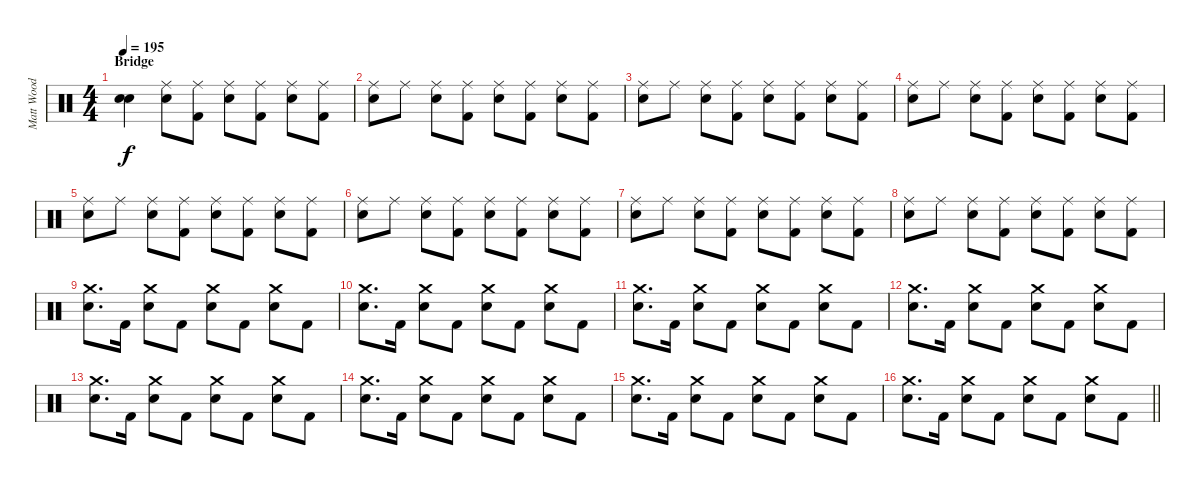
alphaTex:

\track ("Matt Wood" "Matt Wood") {instrument percussion}
\staff {score}
\articulation defaults
\ts (4 4)
\section ("" "Bridge")
\tempo 195
\clef neutral
\ks c
("Snare (hit)"{t} "Snare (hit)"{t}).4{dy f} ("Ride (middle)" "Snare (hit) 2").8 ("Ride (middle)" "Kick (hit) 2").8 ("Ride (middle)" "Snare (hit) 2").8 ("Ride (middle)" "Kick (hit) 2").8 ("Ride (middle)" "Snare (hit) 2").8 ("Ride (middle)" "Kick (hit) 2").8 |
("Ride (middle)" "Snare (hit) 2").8 "Ride (middle)".8 ("Ride (middle)" "Snare (hit) 2").8 ("Ride (middle)" "Kick (hit) 2").8 ("Ride (middle)" "Snare (hit) 2").8 ("Ride (middle)" "Kick (hit) 2").8 ("Ride (middle)" "Snare (hit) 2").8 ("Ride (middle)" "Kick (hit) 2").8 |
("Ride (middle)" "Snare (hit) 2").8 "Ride (middle)".8 ("Ride (middle)" "Snare (hit) 2").8 ("Ride (middle)" "Kick (hit) 2").8 ("Ride (middle)" "Snare (hit) 2").8 ("Ride (middle)" "Kick (hit) 2").8 ("Ride (middle)" "Snare (hit) 2").8 ("Ride (middle)" "Kick (hit) 2").8 |
("Ride (middle)" "Snare (hit) 2").8 "Ride (middle)".8 ("Ride (middle)" "Snare (hit) 2").8 ("Ride (middle)" "Kick (hit) 2").8 ("Ride (middle)" "Snare (hit) 2").8 ("Ride (middle)" "Kick (hit) 2").8 ("Ride (middle)" "Snare (hit) 2").8 ("Ride (middle)" "Kick (hit) 2").8 |
("Ride (middle)" "Snare (hit) 2").8 "Ride (middle)".8 ("Ride (middle)" "Snare (hit) 2").8 ("Ride (middle)" "Kick (hit) 2").8 ("Ride (middle)" "Snare (hit) 2").8 ("Ride (middle)" "Kick (hit) 2").8 ("Ride (middle)" "Snare (hit) 2").8 ("Ride (middle)" "Kick (hit) 2").8 |
("Ride (middle)" "Snare (hit) 2").8 "Ride (middle)".8 ("Ride (middle)" "Snare (hit) 2").8 ("Ride (middle)" "Kick (hit) 2").8 ("Ride (middle)" "Snare (hit) 2").8 ("Ride (middle)" "Kick (hit) 2").8 ("Ride (middle)" "Snare (hit) 2").8 ("Ride (middle)" "Kick (hit) 2").8 |
("Ride (middle)" "Snare (hit) 2").8 "Ride (middle)".8 ("Ride (middle)" "Snare (hit) 2").8 ("Ride (middle)" "Kick (hit) 2").8 ("Ride (middle)" "Snare (hit) 2").8 ("Ride (middle)" "Kick (hit) 2").8 ("Ride (middle)" "Snare (hit) 2").8 ("Ride (middle)" "Kick (hit) 2").8 |
("Ride (middle)" "Snare (hit) 2").8 "Ride (middle)".8 ("Ride (middle)" "Snare (hit) 2").8 ("Ride (middle)" "Kick (hit) 2").8 ("Ride (middle)" "Snare (hit) 2").8 ("Ride (middle)" "Kick (hit) 2").8 ("Ride (middle)" "Snare (hit) 2").8 ("Ride (middle)" "Kick (hit) 2").8 |
("Crash medium (hit)" "Snare (hit) 2").8{d} "Kick (hit) 2".16 ("Crash medium (hit)" "Snare (hit) 2").8 "Kick (hit) 2".8 ("Crash medium (hit)" "Snare (hit) 2").8 "Kick (hit) 2".8 ("Crash medium (hit)" "Snare (hit) 2").8 "Kick (hit) 2".8 |
("Crash medium (hit)" "Snare (hit) 2").8{d} "Kick (hit) 2".16 ("Crash medium (hit)" "Snare (hit) 2").8 "Kick (hit) 2".8 ("Crash medium (hit)" "Snare (hit) 2").8 "Kick (hit) 2".8 ("Crash medium (hit)" "Snare (hit) 2").8 "Kick (hit) 2".8 |
("Crash medium (hit)" "Snare (hit) 2").8{d} "Kick (hit) 2".16 ("Crash medium (hit)" "Snare (hit) 2").8 "Kick (hit) 2".8 ("Crash medium (hit)" "Snare (hit) 2").8 "Kick (hit) 2".8 ("Crash medium (hit)" "Snare (hit) 2").8 "Kick (hit) 2".8 |
("Crash medium (hit)" "Snare (hit) 2").8{d} "Kick (hit) 2".16 ("Crash medium (hit)" "Snare (hit) 2").8 "Kick (hit) 2".8 ("Crash medium (hit)" "Snare (hit) 2").8 "Kick (hit) 2".8 ("Crash medium (hit)" "Snare (hit) 2").8 "Kick (hit) 2".8 |
("Crash medium (hit)" "Snare (hit) 2").8{d} "Kick (hit) 2".16 ("Crash medium (hit)" "Snare (hit) 2").8 "Kick (hit) 2".8 ("Crash medium (hit)" "Snare (hit) 2").8 "Kick (hit) 2".8 ("Crash medium (hit)" "Snare (hit) 2").8 "Kick (hit) 2".8 |
("Crash medium (hit)" "Snare (hit) 2").8{d} "Kick (hit) 2".16 ("Crash medium (hit)" "Snare (hit) 2").8 "Kick (hit) 2".8 ("Crash medium (hit)" "Snare (hit) 2").8 "Kick (hit) 2".8 ("Crash medium (hit)" "Snare (hit) 2").8 "Kick (hit) 2".8 |
("Crash medium (hit)" "Snare (hit) 2").8{d} "Kick (hit) 2".16 ("Crash medium (hit)" "Snare (hit) 2").8 "Kick (hit) 2".8 ("Crash medium (hit)" "Snare (hit) 2").8 "Kick (hit) 2".8 ("Crash medium (hit)" "Snare (hit) 2").8 "Kick (hit) 2".8 |
\barLineRight lightlight
("Crash medium (hit)" "Snare (hit) 2").8{d} "Kick (hit) 2".16 ("Crash medium (hit)" "Snare (hit) 2").8 "Kick (hit) 2".8 ("Crash medium (hit)" "Snare (hit) 2").8 "Kick (hit) 2".8 ("Crash medium (hit)" "Snare (hit) 2").8 "Kick (hit) 2".8
